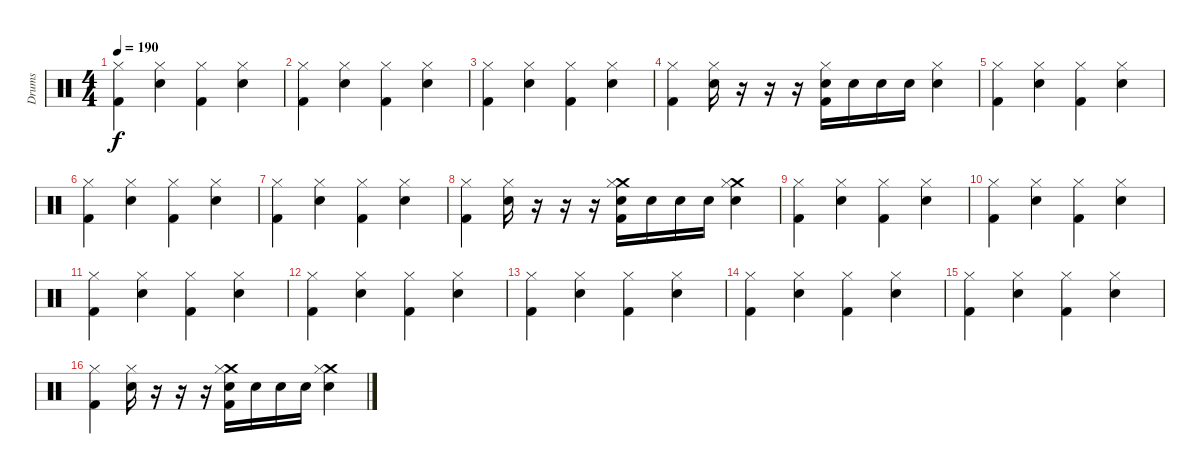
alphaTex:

\track ("Drums" "Drums") {instrument percussion}
\staff {score}
\articulation defaults
\ts (4 4)
\tempo 190
\clef neutral
\ks c
("Hi-Hat (closed)" "Kick (hit) 2").4{dy f} ("Hi-Hat (closed)" "Electric Snare (hit)").4 ("Hi-Hat (closed)" "Kick (hit) 2").4 ("Hi-Hat (closed)" "Electric Snare (hit)").4 |
("Hi-Hat (closed)" "Kick (hit) 2").4 ("Hi-Hat (closed)" "Electric Snare (hit)").4 ("Hi-Hat (closed)" "Kick (hit) 2").4 ("Hi-Hat (closed)" "Electric Snare (hit)").4 |
("Hi-Hat (closed)" "Kick (hit) 2").4 ("Hi-Hat (closed)" "Electric Snare (hit)").4 ("Hi-Hat (closed)" "Kick (hit) 2").4 ("Hi-Hat (closed)" "Electric Snare (hit)").4 |
("Hi-Hat (closed)" "Kick (hit) 2").4 ("Hi-Hat (closed)" "Electric Snare (hit)").16 r.16 r.16 r.16 ("Hi-Hat (closed)" "Electric Snare (hit)" "Kick (hit) 2").16 "Electric Snare (hit)".16 "Electric Snare (hit)".16 "Electric Snare (hit)".16 ("Hi-Hat (closed)" "Electric Snare (hit)").4 |
("Hi-Hat (closed)" "Kick (hit) 2").4 ("Hi-Hat (closed)" "Electric Snare (hit)").4 ("Hi-Hat (closed)" "Kick (hit) 2").4 ("Hi-Hat (closed)" "Electric Snare (hit)").4 |
("Hi-Hat (closed)" "Kick (hit) 2").4 ("Hi-Hat (closed)" "Electric Snare (hit)").4 ("Hi-Hat (closed)" "Kick (hit) 2").4 ("Hi-Hat (closed)" "Electric Snare (hit)").4 |
("Hi-Hat (closed)" "Kick (hit) 2").4 ("Hi-Hat (closed)" "Electric Snare (hit)").4 ("Hi-Hat (closed)" "Kick (hit) 2").4 ("Hi-Hat (closed)" "Electric Snare (hit)").4 |
("Hi-Hat (closed)" "Kick (hit) 2").4 ("Hi-Hat (closed)" "Electric Snare (hit)").16 r.16 r.16 r.16 ("Crash medium (hit)" "Hi-Hat (closed)" "Electric Snare (hit)" "Kick (hit) 2").16 "Electric Snare (hit)".16 "Electric Snare (hit)".16 "Electric Snare (hit)".16 ("Crash medium (hit)" "Hi-Hat (closed)" "Electric Snare (hit)").4 |
("Hi-Hat (closed)" "Kick (hit) 2").4 ("Hi-Hat (closed)" "Electric Snare (hit)").4 ("Hi-Hat (closed)" "Kick (hit) 2").4 ("Hi-Hat (closed)" "Electric Snare (hit)").4 |
("Hi-Hat (closed)" "Kick (hit) 2").4 ("Hi-Hat (closed)" "Electric Snare (hit)").4 ("Hi-Hat (closed)" "Kick (hit) 2").4 ("Hi-Hat (closed)" "Electric Snare (hit)").4 |
("Hi-Hat (closed)" "Kick (hit) 2").4 ("Hi-Hat (closed)" "Electric Snare (hit)").4 ("Hi-Hat (closed)" "Kick (hit) 2").4 ("Hi-Hat (closed)" "Electric Snare (hit)").4 |
("Hi-Hat (closed)" "Kick (hit) 2").4 ("Hi-Hat (closed)" "Electric Snare (hit)").4 ("Hi-Hat (closed)" "Kick (hit) 2").4 ("Hi-Hat (closed)" "Electric Snare (hit)").4 |
("Hi-Hat (closed)" "Kick (hit) 2").4 ("Hi-Hat (closed)" "Electric Snare (hit)").4 ("Hi-Hat (closed)" "Kick (hit) 2").4 ("Hi-Hat (closed)" "Electric Snare (hit)").4 |
("Hi-Hat (closed)" "Kick (hit) 2").4 ("Hi-Hat (closed)" "Electric Snare (hit)").4 ("Hi-Hat (closed)" "Kick (hit) 2").4 ("Hi-Hat (closed)" "Electric Snare (hit)").4 |
("Hi-Hat (closed)" "Kick (hit) 2").4 ("Hi-Hat (closed)" "Electric Snare (hit)").4 ("Hi-Hat (closed)" "Kick (hit) 2").4 ("Hi-Hat (closed)" "Electric Snare (hit)").4 |
("Hi-Hat (closed)" "Kick (hit) 2").4 ("Hi-Hat (closed)" "Electric Snare (hit)").16 r.16 r.16 r.16 ("Crash medium (hit)" "Hi-Hat (closed)" "Electric Snare (hit)" "Kick (hit) 2").16 "Electric Snare (hit)".16 "Electric Snare (hit)".16 "Electric Snare (hit)".16 ("Crash medium (hit)" "Hi-Hat (closed)" "Electric Snare (hit)").4
